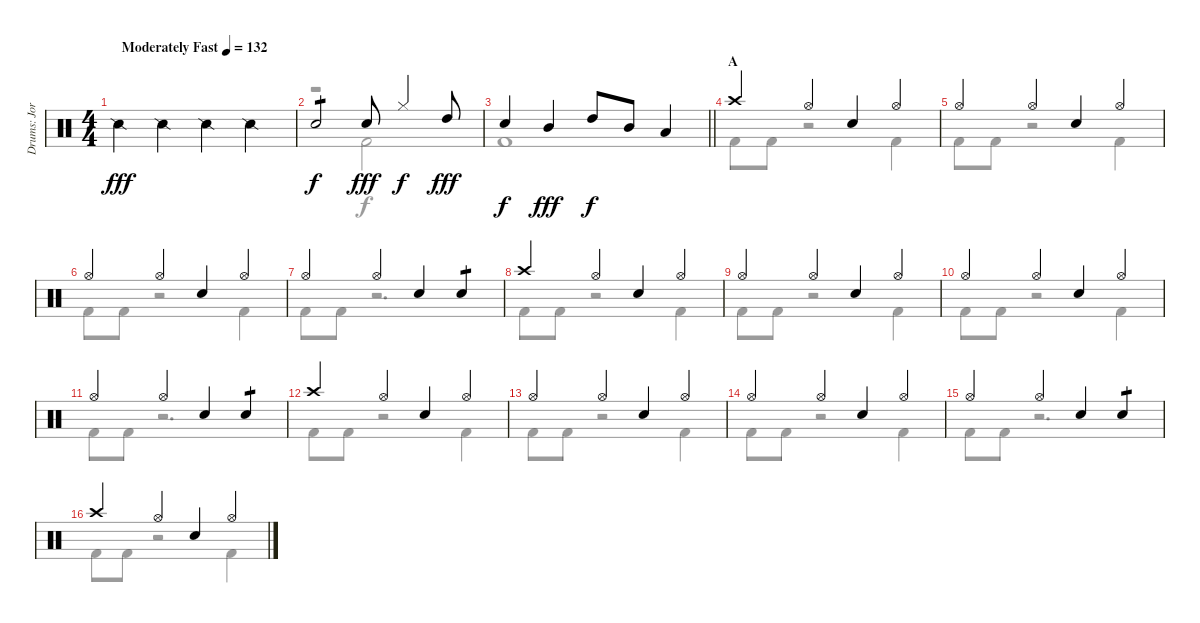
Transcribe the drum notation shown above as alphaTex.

\track ("Drums: Jorg" "Drums: Jor") {instrument percussion}
\staff {score}
\articulation defaults
\voice
\ts (4 4)
\tempo (132 "Moderately Fast")
\clef neutral
\ks c "Snare (side stick) 2".4{dy fff} "Snare (side stick) 2".4 "Snare (side stick) 2".4 "Snare (side stick) 2".4
|
"Snare (hit) 2".2{tp 1 dy f} "Snare (hit) 2".8{dy fff} "Hi-Hat (closed)".4{dy f} "High Tom (hit)".8{dy fff} |
\barLineRight lightlight "Snare (hit) 2".4{dy f} "Mid Tom (hit)".4{dy fff} "High Tom (hit)".8{dy f} "Mid Tom (hit)".8 "Low Tom (hit)".4
|
\section ("" "A")
"Crash high (hit)".4 "Hi-Hat (open)".4 "Snare (hit) 2".4 "Hi-Hat (open)".4 |
"Hi-Hat (open)".4 "Hi-Hat (open)".4 "Snare (hit) 2".4 "Hi-Hat (open)".4 |
"Hi-Hat (open)".4 "Hi-Hat (open)".4 "Snare (hit) 2".4 "Hi-Hat (open)".4 |
"Hi-Hat (open)".4 "Hi-Hat (open)".4 "Snare (hit) 2".4 "Snare (hit) 2".4{tp 1} |
"Crash high (hit)".4 "Hi-Hat (open)".4 "Snare (hit) 2".4 "Hi-Hat (open)".4 |
"Hi-Hat (open)".4 "Hi-Hat (open)".4 "Snare (hit) 2".4 "Hi-Hat (open)".4 |
"Hi-Hat (open)".4 "Hi-Hat (open)".4 "Snare (hit) 2".4 "Hi-Hat (open)".4 |
"Hi-Hat (open)".4 "Hi-Hat (open)".4 "Snare (hit) 2".4 "Snare (hit) 2".4{tp 1} |
"Crash high (hit)".4 "Hi-Hat (open)".4 "Snare (hit) 2".4 "Hi-Hat (open)".4 |
"Hi-Hat (open)".4 "Hi-Hat (open)".4 "Snare (hit) 2".4 "Hi-Hat (open)".4 |
"Hi-Hat (open)".4 "Hi-Hat (open)".4 "Snare (hit) 2".4 "Hi-Hat (open)".4 |
"Hi-Hat (open)".4 "Hi-Hat (open)".4 "Snare (hit) 2".4 "Snare (hit) 2".4{tp 1} |
"Crash high (hit)".4 "Hi-Hat (open)".4 "Snare (hit) 2".4 "Hi-Hat (open)".4
\voice
\clef neutral
\ottava regular
\simile none
\ks c
|
r.2 "Kick (hit) 2".2 |
\barLineRight lightlight "Kick (hit) 2".1
|
"Kick (hit) 2".8{dy f} "Kick (hit) 2".8 r.2 "Kick (hit) 2".4 |
"Kick (hit) 2".8 "Kick (hit) 2".8 r.2 "Kick (hit) 2".4 |
"Kick (hit) 2".8 "Kick (hit) 2".8 r.2 "Kick (hit) 2".4 |
"Kick (hit) 2".8 "Kick (hit) 2".8 r.2{d} |
"Kick (hit) 2".8 "Kick (hit) 2".8 r.2 "Kick (hit) 2".4 |
"Kick (hit) 2".8 "Kick (hit) 2".8 r.2 "Kick (hit) 2".4 |
"Kick (hit) 2".8 "Kick (hit) 2".8 r.2 "Kick (hit) 2".4 |
"Kick (hit) 2".8 "Kick (hit) 2".8 r.2{d} |
"Kick (hit) 2".8 "Kick (hit) 2".8 r.2 "Kick (hit) 2".4 |
"Kick (hit) 2".8 "Kick (hit) 2".8 r.2 "Kick (hit) 2".4 |
"Kick (hit) 2".8 "Kick (hit) 2".8 r.2 "Kick (hit) 2".4 |
"Kick (hit) 2".8 "Kick (hit) 2".8 r.2{d} |
"Kick (hit) 2".8 "Kick (hit) 2".8 r.2 "Kick (hit) 2".4
